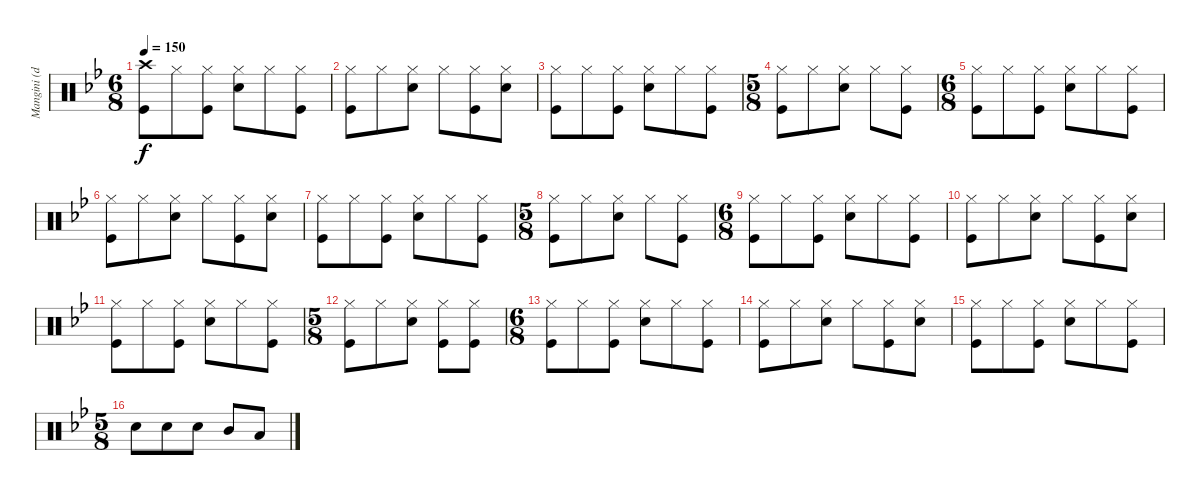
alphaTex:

\track ("Mangini (drums)" "Mangini (d") {instrument percussion}
\staff {score}
\articulation defaults
\ts (6 8)
\tempo 150
\clef neutral
\ks gminor
("Crash high (hit)" "Kick (hit)").8{dy f} "Hi-Hat (closed)".8 ("Hi-Hat (closed)" "Kick (hit)").8 ("Hi-Hat (closed)" "Snare (hit) 2").8 "Hi-Hat (closed)".8 ("Hi-Hat (closed)" "Kick (hit)").8 |
("Hi-Hat (closed)" "Kick (hit)").8 "Hi-Hat (closed)".8 ("Hi-Hat (closed)" "Snare (hit) 2").8 "Hi-Hat (closed)".8 ("Hi-Hat (closed)" "Kick (hit)").8 ("Hi-Hat (closed)" "Snare (hit) 2").8 |
("Hi-Hat (closed)" "Kick (hit)").8 "Hi-Hat (closed)".8 ("Hi-Hat (closed)" "Kick (hit)").8 ("Hi-Hat (closed)" "Snare (hit) 2").8 "Hi-Hat (closed)".8 ("Hi-Hat (closed)" "Kick (hit)").8 |
\ts (5 8)
("Hi-Hat (closed)" "Kick (hit)").8 "Hi-Hat (closed)".8 ("Hi-Hat (closed)" "Snare (hit) 2").8 "Hi-Hat (closed)".8 ("Hi-Hat (closed)" "Kick (hit)").8 |
\ts (6 8)
("Hi-Hat (closed)" "Kick (hit)").8 "Hi-Hat (closed)".8 ("Hi-Hat (closed)" "Kick (hit)").8 ("Hi-Hat (closed)" "Snare (hit) 2").8 "Hi-Hat (closed)".8 ("Hi-Hat (closed)" "Kick (hit)").8 |
("Hi-Hat (closed)" "Kick (hit)").8 "Hi-Hat (closed)".8 ("Hi-Hat (closed)" "Snare (hit) 2").8 "Hi-Hat (closed)".8 ("Hi-Hat (closed)" "Kick (hit)").8 ("Hi-Hat (closed)" "Snare (hit) 2").8 |
("Hi-Hat (closed)" "Kick (hit)").8 "Hi-Hat (closed)".8 ("Hi-Hat (closed)" "Kick (hit)").8 ("Hi-Hat (closed)" "Snare (hit) 2").8 "Hi-Hat (closed)".8 ("Hi-Hat (closed)" "Kick (hit)").8 |
\ts (5 8)
("Hi-Hat (closed)" "Kick (hit)").8 "Hi-Hat (closed)".8 ("Hi-Hat (closed)" "Snare (hit) 2").8 "Hi-Hat (closed)".8 ("Hi-Hat (closed)" "Kick (hit)").8 |
\ts (6 8)
("Hi-Hat (closed)" "Kick (hit)").8 "Hi-Hat (closed)".8 ("Hi-Hat (closed)" "Kick (hit)").8 ("Hi-Hat (closed)" "Snare (hit) 2").8 "Hi-Hat (closed)".8 ("Hi-Hat (closed)" "Kick (hit)").8 |
("Hi-Hat (closed)" "Kick (hit)").8 "Hi-Hat (closed)".8 ("Hi-Hat (closed)" "Snare (hit) 2").8 "Hi-Hat (closed)".8 ("Hi-Hat (closed)" "Kick (hit)").8 ("Hi-Hat (closed)" "Snare (hit) 2").8 |
("Hi-Hat (closed)" "Kick (hit)").8 "Hi-Hat (closed)".8 ("Hi-Hat (closed)" "Kick (hit)").8 ("Hi-Hat (closed)" "Snare (hit) 2").8 "Hi-Hat (closed)".8 ("Hi-Hat (closed)" "Kick (hit)").8 |
\ts (5 8)
("Hi-Hat (closed)" "Kick (hit)").8 "Hi-Hat (closed)".8 ("Hi-Hat (closed)" "Snare (hit) 2").8 ("Hi-Hat (closed)" "Kick (hit)").8 ("Hi-Hat (closed)" "Kick (hit)").8 |
\ts (6 8)
("Hi-Hat (closed)" "Kick (hit)").8 "Hi-Hat (closed)".8 ("Hi-Hat (closed)" "Kick (hit)").8 ("Hi-Hat (closed)" "Snare (hit) 2").8 "Hi-Hat (closed)".8 ("Hi-Hat (closed)" "Kick (hit)").8 |
("Hi-Hat (closed)" "Kick (hit)").8 "Hi-Hat (closed)".8 ("Hi-Hat (closed)" "Snare (hit) 2").8 "Hi-Hat (closed)".8 ("Hi-Hat (closed)" "Kick (hit)").8 ("Hi-Hat (closed)" "Snare (hit) 2").8 |
("Hi-Hat (closed)" "Kick (hit)").8 "Hi-Hat (closed)".8 ("Hi-Hat (closed)" "Kick (hit)").8 ("Hi-Hat (closed)" "Snare (hit) 2").8 "Hi-Hat (closed)".8 ("Hi-Hat (closed)" "Kick (hit)").8 |
\ts (5 8)
"Snare (hit) 2".8 "Snare (hit) 2".8 "Snare (hit) 2".8 "Mid Tom (hit)".8 "Low Tom (hit)".8
